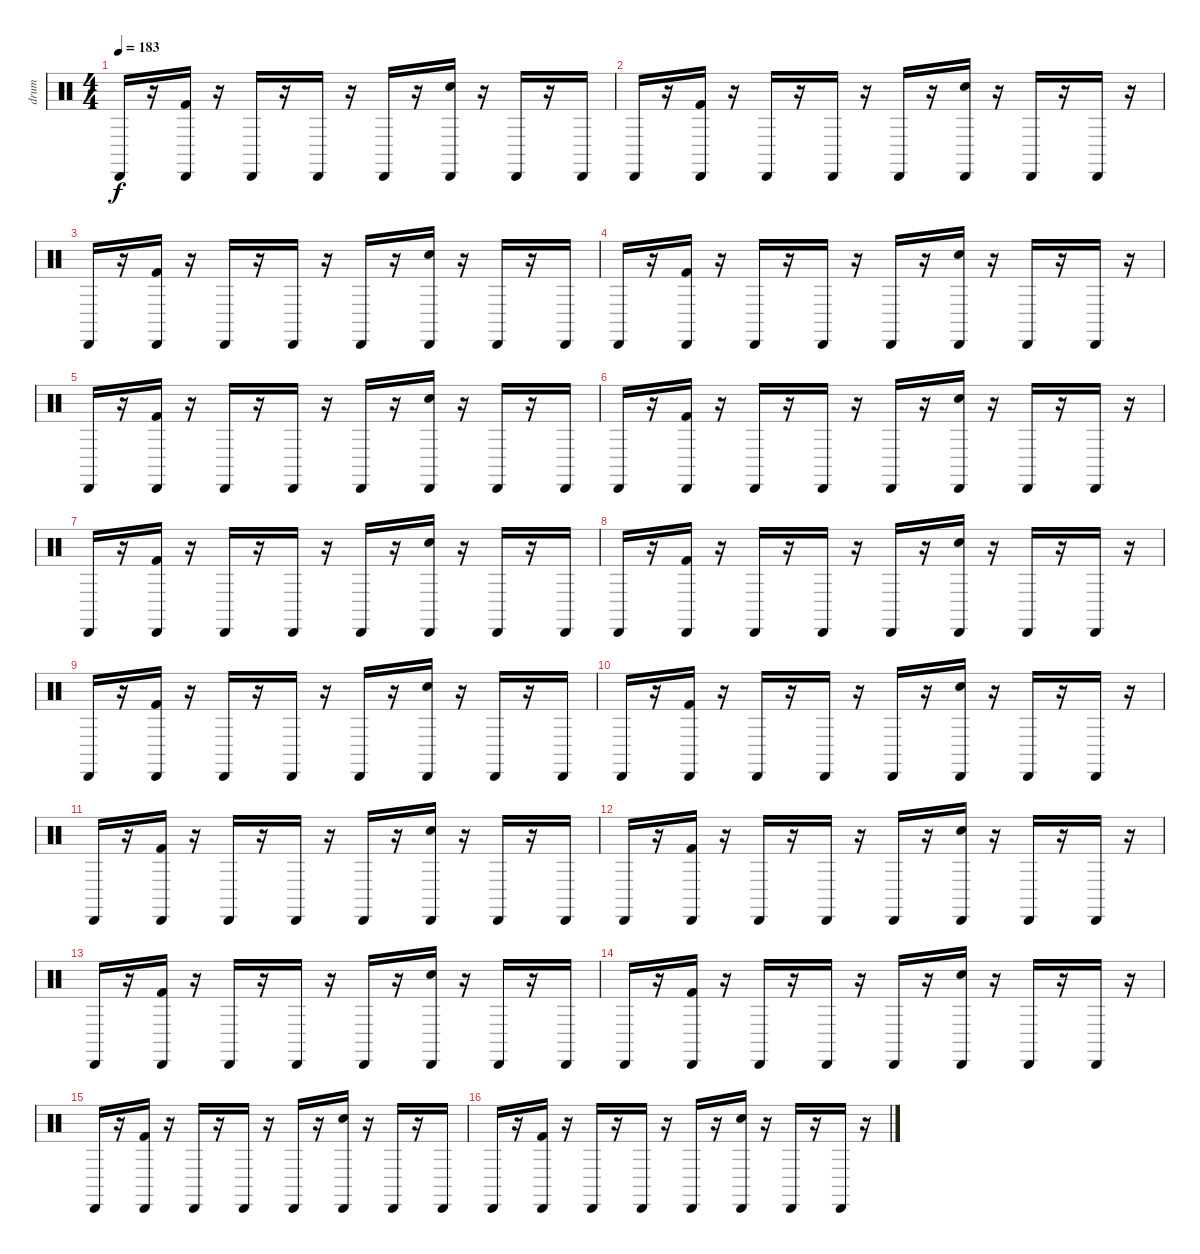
\track ("drum" "drum") {instrument percussion}
\staff {score}
\articulation defaults
\ts (4 4)
\tempo 183
\clef neutral
\ks c "Cabasa (hit)".16{dy f}
r.16 ("Cabasa (hit)" "Kick (hit) 2").16 r.16 "Cabasa (hit)".16 r.16 "Cabasa (hit)".16 r.16 "Cabasa (hit)".16 r.16 ("Cabasa (hit)" "Snare (hit) 2").16 r.16 "Cabasa (hit)".16 r.16 "Cabasa (hit)".16 |
"Cabasa (hit)".16 r.16 ("Cabasa (hit)" "Kick (hit) 2").16 r.16 "Cabasa (hit)".16 r.16 "Cabasa (hit)".16 r.16 "Cabasa (hit)".16 r.16 ("Cabasa (hit)" "Snare (hit) 2").16 r.16 "Cabasa (hit)".16 r.16 "Cabasa (hit)".16 r.16 |
"Cabasa (hit)".16 r.16 ("Cabasa (hit)" "Kick (hit) 2").16 r.16 "Cabasa (hit)".16 r.16 "Cabasa (hit)".16 r.16 "Cabasa (hit)".16 r.16 ("Cabasa (hit)" "Snare (hit) 2").16 r.16 "Cabasa (hit)".16 r.16 "Cabasa (hit)".16 |
"Cabasa (hit)".16 r.16 ("Cabasa (hit)" "Kick (hit) 2").16 r.16 "Cabasa (hit)".16 r.16 "Cabasa (hit)".16 r.16 "Cabasa (hit)".16 r.16 ("Cabasa (hit)" "Snare (hit) 2").16 r.16 "Cabasa (hit)".16 r.16 "Cabasa (hit)".16 r.16 |
"Cabasa (hit)".16 r.16 ("Cabasa (hit)" "Kick (hit) 2").16 r.16 "Cabasa (hit)".16 r.16 "Cabasa (hit)".16 r.16 "Cabasa (hit)".16 r.16 ("Cabasa (hit)" "Snare (hit) 2").16 r.16 "Cabasa (hit)".16 r.16 "Cabasa (hit)".16 |
"Cabasa (hit)".16 r.16 ("Cabasa (hit)" "Kick (hit) 2").16 r.16 "Cabasa (hit)".16 r.16 "Cabasa (hit)".16 r.16 "Cabasa (hit)".16 r.16 ("Cabasa (hit)" "Snare (hit) 2").16 r.16 "Cabasa (hit)".16 r.16 "Cabasa (hit)".16 r.16 |
"Cabasa (hit)".16 r.16 ("Cabasa (hit)" "Kick (hit) 2").16 r.16 "Cabasa (hit)".16 r.16 "Cabasa (hit)".16 r.16 "Cabasa (hit)".16 r.16 ("Cabasa (hit)" "Snare (hit) 2").16 r.16 "Cabasa (hit)".16 r.16 "Cabasa (hit)".16 |
"Cabasa (hit)".16 r.16 ("Cabasa (hit)" "Kick (hit) 2").16 r.16 "Cabasa (hit)".16 r.16 "Cabasa (hit)".16 r.16 "Cabasa (hit)".16 r.16 ("Cabasa (hit)" "Snare (hit) 2").16 r.16 "Cabasa (hit)".16 r.16 "Cabasa (hit)".16 r.16 |
"Cabasa (hit)".16 r.16 ("Cabasa (hit)" "Kick (hit) 2").16 r.16 "Cabasa (hit)".16 r.16 "Cabasa (hit)".16 r.16 "Cabasa (hit)".16 r.16 ("Cabasa (hit)" "Snare (hit) 2").16 r.16 "Cabasa (hit)".16 r.16 "Cabasa (hit)".16 |
"Cabasa (hit)".16 r.16 ("Cabasa (hit)" "Kick (hit) 2").16 r.16 "Cabasa (hit)".16 r.16 "Cabasa (hit)".16 r.16 "Cabasa (hit)".16 r.16 ("Cabasa (hit)" "Snare (hit) 2").16 r.16 "Cabasa (hit)".16 r.16 "Cabasa (hit)".16 r.16 |
"Cabasa (hit)".16 r.16 ("Cabasa (hit)" "Kick (hit) 2").16 r.16 "Cabasa (hit)".16 r.16 "Cabasa (hit)".16 r.16 "Cabasa (hit)".16 r.16 ("Cabasa (hit)" "Snare (hit) 2").16 r.16 "Cabasa (hit)".16 r.16 "Cabasa (hit)".16 |
"Cabasa (hit)".16 r.16 ("Cabasa (hit)" "Kick (hit) 2").16 r.16 "Cabasa (hit)".16 r.16 "Cabasa (hit)".16 r.16 "Cabasa (hit)".16 r.16 ("Cabasa (hit)" "Snare (hit) 2").16 r.16 "Cabasa (hit)".16 r.16 "Cabasa (hit)".16 r.16 |
"Cabasa (hit)".16 r.16 ("Cabasa (hit)" "Kick (hit) 2").16 r.16 "Cabasa (hit)".16 r.16 "Cabasa (hit)".16 r.16 "Cabasa (hit)".16 r.16 ("Cabasa (hit)" "Snare (hit) 2").16 r.16 "Cabasa (hit)".16 r.16 "Cabasa (hit)".16 |
"Cabasa (hit)".16 r.16 ("Cabasa (hit)" "Kick (hit) 2").16 r.16 "Cabasa (hit)".16 r.16 "Cabasa (hit)".16 r.16 "Cabasa (hit)".16 r.16 ("Cabasa (hit)" "Snare (hit) 2").16 r.16 "Cabasa (hit)".16 r.16 "Cabasa (hit)".16 r.16 |
"Cabasa (hit)".16 r.16 ("Cabasa (hit)" "Kick (hit) 2").16 r.16 "Cabasa (hit)".16 r.16 "Cabasa (hit)".16 r.16 "Cabasa (hit)".16 r.16 ("Cabasa (hit)" "Snare (hit) 2").16 r.16 "Cabasa (hit)".16 r.16 "Cabasa (hit)".16 |
"Cabasa (hit)".16 r.16 ("Cabasa (hit)" "Kick (hit) 2").16 r.16 "Cabasa (hit)".16 r.16 "Cabasa (hit)".16 r.16 "Cabasa (hit)".16 r.16 ("Cabasa (hit)" "Snare (hit) 2").16 r.16 "Cabasa (hit)".16 r.16 "Cabasa (hit)".16 r.16
